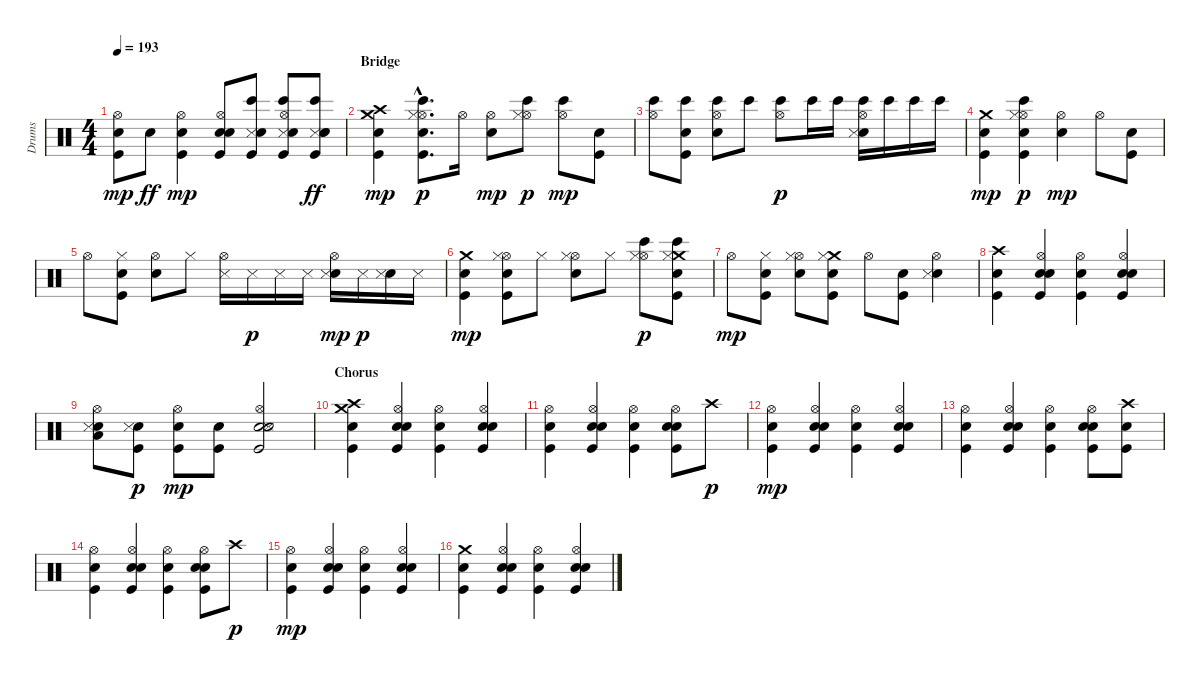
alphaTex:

\track ("Drums" "Drums") {instrument percussion}
\staff {score}
\articulation defaults
\ts (4 4)
\tempo 193
\clef neutral
\ks c
("Kick (hit)" "Snare (hit) 2" "Hi-Hat (open)").8{dy mp} "Electric Snare (hit)".8{dy ff} ("Kick (hit)" "Snare (hit) 2" "Hi-Hat (open)").4{dy mp} ("Kick (hit)" "Snare (hit) 2" "Electric Snare (hit)" "Hi-Hat (open)").8 ("Bongo High (hit)" "Snare (side stick) 3" "Kick (hit)" "Snare (hit) 2").8 ("Bongo High (hit)" "Snare (side stick) 3" "Kick (hit)" "Snare (hit) 2" "Hi-Hat (open)").8 ("Bongo High (hit)" "Snare (side stick) 3" "Kick (hit)" "Snare (hit) 2" "Electric Snare (hit)").8{dy ff} |
\section ("" "Bridge")
("Crash high (hit)" "Crash medium (hit)" "Kick (hit)" "Snare (hit) 2").4{dy mp} ("Kick (hit)"{hac} "Snare (hit) 2"{hac} "Hi-Hat (open)"{hac} "Hi-Hat (closed)"{hac} "Bongo High (hit)"{hac}).8{d dy p} "Hi-Hat (open)".16 ("Electric Snare (hit)" "Hi-Hat (open)").8{dy mp} ("Hi-Hat (open)" "Hi-Hat (closed)" "Bongo High (hit)").8{dy p} ("Hi-Hat (open)" "Bongo High (hit)").8{dy mp} ("Kick (hit)" "Snare (hit) 2").8 |
("Hi-Hat (open)" "Bongo High (hit)").8 ("Kick (hit)" "Snare (hit) 2" "Bongo High (hit)").8 ("Electric Snare (hit)" "Hi-Hat (open)" "Bongo High (hit)").8 "Bongo High (hit)".8 ("Hi-Hat (open)" "Bongo High (hit)").8{dy p} "Bongo High (hit)".16 "Bongo High (hit)".16 ("Electric Snare (hit)" "Snare (side stick) 3" "Hi-Hat (open)" "Bongo High (hit)").16 "Bongo High (hit)".16 "Bongo High (hit)".16 "Bongo High (hit)".16 |
("Crash medium (hit)" "Kick (hit)" "Snare (hit) 2").4{dy mp} ("Kick (hit)" "Snare (hit) 2" "Hi-Hat (open)" "Hi-Hat (closed)" "Bongo High (hit)").4{dy p} ("Electric Snare (hit)" "Hi-Hat (open)").4{dy mp} "Hi-Hat (open)".8 ("Kick (hit)" "Snare (hit) 2").8 |
"Hi-Hat (open)".8 ("Kick (hit)" "Snare (hit) 2" "Hi-Hat (closed)").8 ("Electric Snare (hit)" "Hi-Hat (open)").8 "Hi-Hat (closed)".8 ("Snare (side stick) 3" "Hi-Hat (open)").16 "Snare (side stick) 3".16{dy p} "Snare (side stick) 3".16 "Snare (side stick) 3".16 ("Electric Snare (hit)" "Snare (side stick) 3" "Hi-Hat (open)").16{dy mp} "Snare (side stick) 3".16{dy p} ("Electric Snare (hit)" "Snare (side stick) 3").16 "Snare (side stick) 3".16 |
("Crash medium (hit)" "Kick (hit)" "Snare (hit) 2").4{dy mp} ("Kick (hit)" "Snare (hit) 2" "Hi-Hat (open)" "Hi-Hat (closed)").8 "Hi-Hat (closed)".8 ("Electric Snare (hit)" "Hi-Hat (open)" "Hi-Hat (closed)").8 "Hi-Hat (closed)".8 ("Hi-Hat (open)" "Bongo High (hit)" "Hi-Hat (closed)").8{dy p} ("Crash medium (hit)" "Kick (hit)" "Snare (hit) 2" "Bongo High (hit)" "Hi-Hat (closed)").8 |
"Hi-Hat (open)".8{dy mp} ("Kick (hit)" "Snare (hit) 2" "Hi-Hat (closed)").8 ("Electric Snare (hit)" "Hi-Hat (open)" "Hi-Hat (closed)").8 ("Crash medium (hit)" "Kick (hit)" "Snare (hit) 2" "Hi-Hat (closed)").8 "Hi-Hat (open)".8 ("Kick (hit)" "Snare (hit) 2").8 ("Electric Snare (hit)" "Snare (side stick) 3" "Hi-Hat (open)").4 |
("Crash high (hit)" "Kick (hit)" "Snare (hit) 2").4 ("Kick (hit)" "Snare (hit) 2" "Electric Snare (hit)" "Hi-Hat (open)").4 ("Kick (hit)" "Snare (hit) 2" "Hi-Hat (open)").4 ("Kick (hit)" "Snare (hit) 2" "Electric Snare (hit)" "Hi-Hat (open)").4 |
("Low Tom (hit)" "Electric Snare (hit)" "Snare (side stick) 3" "Hi-Hat (open)").8 ("Kick (hit)" "Snare (hit) 2" "Snare (side stick) 3").8{dy p} ("Kick (hit)" "Snare (hit) 2" "Hi-Hat (open)").8{dy mp} ("Kick (hit)" "Snare (hit) 2").8 ("Kick (hit)" "Snare (hit) 2" "Electric Snare (hit)" "Snare (side stick) 3" "Hi-Hat (open)").2 |
\section ("" "Chorus")
("Crash medium (hit)" "Crash high (hit)" "Kick (hit)" "Snare (hit) 2").4 ("Kick (hit)" "Snare (hit) 2" "Electric Snare (hit)" "Hi-Hat (open)").4 ("Kick (hit)" "Snare (hit) 2" "Hi-Hat (open)").4 ("Kick (hit)" "Snare (hit) 2" "Electric Snare (hit)" "Hi-Hat (open)").4 |
("Kick (hit)" "Snare (hit) 2" "Hi-Hat (open)").4 ("Kick (hit)" "Snare (hit) 2" "Electric Snare (hit)" "Hi-Hat (open)").4 ("Kick (hit)" "Snare (hit) 2" "Hi-Hat (open)").4 ("Kick (hit)" "Snare (hit) 2" "Electric Snare (hit)" "Hi-Hat (open)").8 "Crash high (hit)".8{dy p} |
("Kick (hit)" "Snare (hit) 2" "Hi-Hat (open)").4{dy mp} ("Kick (hit)" "Snare (hit) 2" "Electric Snare (hit)" "Hi-Hat (open)").4 ("Kick (hit)" "Snare (hit) 2" "Hi-Hat (open)").4 ("Kick (hit)" "Snare (hit) 2" "Electric Snare (hit)" "Hi-Hat (open)").4 |
("Kick (hit)" "Snare (hit) 2" "Hi-Hat (open)").4 ("Kick (hit)" "Snare (hit) 2" "Electric Snare (hit)" "Hi-Hat (open)").4 ("Kick (hit)" "Snare (hit) 2" "Hi-Hat (open)").4 ("Kick (hit)" "Snare (hit) 2" "Electric Snare (hit)" "Hi-Hat (open)").8 ("Crash high (hit)" "Kick (hit)" "Snare (hit) 2").8 |
("Kick (hit)" "Snare (hit) 2" "Hi-Hat (open)").4 ("Kick (hit)" "Snare (hit) 2" "Electric Snare (hit)" "Hi-Hat (open)").4 ("Kick (hit)" "Snare (hit) 2" "Hi-Hat (open)").4 ("Kick (hit)" "Snare (hit) 2" "Electric Snare (hit)" "Hi-Hat (open)").8 "Crash high (hit)".8{dy p} |
("Kick (hit)" "Snare (hit) 2" "Hi-Hat (open)").4{dy mp} ("Kick (hit)" "Snare (hit) 2" "Electric Snare (hit)" "Hi-Hat (open)").4 ("Kick (hit)" "Snare (hit) 2" "Hi-Hat (open)").4 ("Kick (hit)" "Snare (hit) 2" "Electric Snare (hit)" "Hi-Hat (open)").4 |
("Crash medium (hit)" "Kick (hit)" "Snare (hit) 2").4 ("Kick (hit)" "Snare (hit) 2" "Electric Snare (hit)" "Hi-Hat (open)").4 ("Kick (hit)" "Snare (hit) 2" "Hi-Hat (open)").4 ("Kick (hit)" "Snare (hit) 2" "Electric Snare (hit)" "Hi-Hat (open)").4
